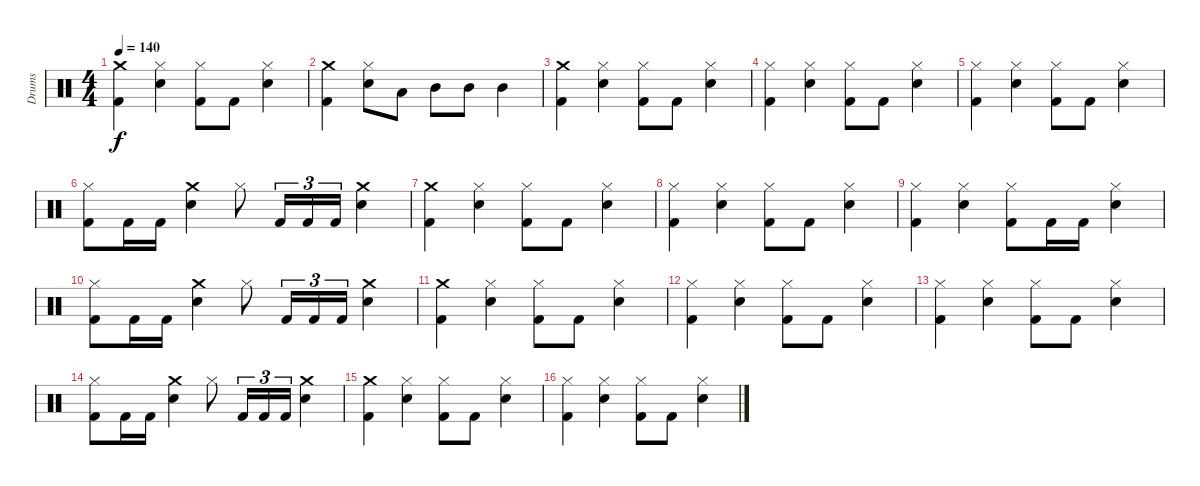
\track ("Drums" "Drums") {instrument percussion}
\staff {score}
\articulation defaults
\ts (4 4)
\tempo 140
\clef neutral
\ks c
("Kick (hit) 2" "Crash medium (hit)").4{dy f} ("Snare (hit) 2" "Hi-Hat (closed)").4 ("Kick (hit) 2" "Hi-Hat (closed)").8 "Kick (hit) 2".8 ("Snare (hit) 2" "Hi-Hat (closed)").4 |
("Kick (hit) 2" "Crash medium (hit)").4 ("Snare (hit) 2" "Hi-Hat (closed)").8 "Low Tom (hit)".8 "Mid Tom (hit)".8 "Mid Tom (hit)".8 "Mid Tom (hit)".4 |
("Kick (hit) 2" "Crash medium (hit)").4 ("Snare (hit) 2" "Hi-Hat (closed)").4 ("Kick (hit) 2" "Hi-Hat (closed)").8 "Kick (hit) 2".8 ("Snare (hit) 2" "Hi-Hat (closed)").4 |
("Hi-Hat (closed)" "Kick (hit) 2").4 ("Snare (hit) 2" "Hi-Hat (closed)").4 ("Hi-Hat (closed)" "Kick (hit) 2").8 "Kick (hit) 2".8 ("Snare (hit) 2" "Hi-Hat (closed)").4 |
("Kick (hit) 2" "Hi-Hat (closed)").4 ("Snare (hit) 2" "Hi-Hat (closed)").4 ("Hi-Hat (closed)" "Kick (hit) 2").8 "Kick (hit) 2".8 ("Snare (hit) 2" "Hi-Hat (closed)").4 |
("Hi-Hat (closed)" "Kick (hit) 2").8 "Kick (hit) 2".16 "Kick (hit) 2".16 ("Snare (hit) 2" "Crash medium (hit)").4 "Hi-Hat (closed)".8 "Kick (hit) 2".16{tu (3 2)} "Kick (hit) 2".16{tu (3 2)} "Kick (hit) 2".16{tu (3 2)} ("Snare (hit) 2" "Crash medium (hit)").4 |
("Crash medium (hit)" "Kick (hit) 2").4 ("Snare (hit) 2" "Hi-Hat (closed)").4 ("Kick (hit) 2" "Hi-Hat (closed)").8 "Kick (hit) 2".8 ("Snare (hit) 2" "Hi-Hat (closed)").4 |
("Kick (hit) 2" "Hi-Hat (closed)").4 ("Snare (hit) 2" "Hi-Hat (closed)").4 ("Hi-Hat (closed)" "Kick (hit) 2").8 "Kick (hit) 2".8 ("Snare (hit) 2" "Hi-Hat (closed)").4 |
("Kick (hit) 2" "Hi-Hat (closed)").4 ("Snare (hit) 2" "Hi-Hat (closed)").4 ("Hi-Hat (closed)" "Kick (hit) 2").8 "Kick (hit) 2".16 "Kick (hit) 2".16 ("Snare (hit) 2" "Hi-Hat (closed)").4 |
("Hi-Hat (closed)" "Kick (hit) 2").8 "Kick (hit) 2".16 "Kick (hit) 2".16 ("Snare (hit) 2" "Crash medium (hit)").4 "Hi-Hat (closed)".8 "Kick (hit) 2".16{tu (3 2)} "Kick (hit) 2".16{tu (3 2)} "Kick (hit) 2".16{tu (3 2)} ("Snare (hit) 2" "Crash medium (hit)").4 |
("Crash medium (hit)" "Kick (hit) 2").4 ("Snare (hit) 2" "Hi-Hat (closed)").4 ("Kick (hit) 2" "Hi-Hat (closed)").8 "Kick (hit) 2".8 ("Snare (hit) 2" "Hi-Hat (closed)").4 |
("Kick (hit) 2" "Hi-Hat (closed)").4 ("Snare (hit) 2" "Hi-Hat (closed)").4 ("Hi-Hat (closed)" "Kick (hit) 2").8 "Kick (hit) 2".8 ("Snare (hit) 2" "Hi-Hat (closed)").4 |
("Kick (hit) 2" "Hi-Hat (closed)").4 ("Snare (hit) 2" "Hi-Hat (closed)").4 ("Hi-Hat (closed)" "Kick (hit) 2").8 "Kick (hit) 2".8 ("Snare (hit) 2" "Hi-Hat (closed)").4 |
("Hi-Hat (closed)" "Kick (hit) 2").8 "Kick (hit) 2".16 "Kick (hit) 2".16 ("Snare (hit) 2" "Crash medium (hit)").4 "Hi-Hat (closed)".8 "Kick (hit) 2".16{tu (3 2)} "Kick (hit) 2".16{tu (3 2)} "Kick (hit) 2".16{tu (3 2)} ("Snare (hit) 2" "Crash medium (hit)").4 |
("Crash medium (hit)" "Kick (hit) 2").4 ("Snare (hit) 2" "Hi-Hat (closed)").4 ("Kick (hit) 2" "Hi-Hat (closed)").8 "Kick (hit) 2".8 ("Snare (hit) 2" "Hi-Hat (closed)").4 |
("Kick (hit) 2" "Hi-Hat (closed)").4 ("Snare (hit) 2" "Hi-Hat (closed)").4 ("Hi-Hat (closed)" "Kick (hit) 2").8 "Kick (hit) 2".8 ("Snare (hit) 2" "Hi-Hat (closed)").4
